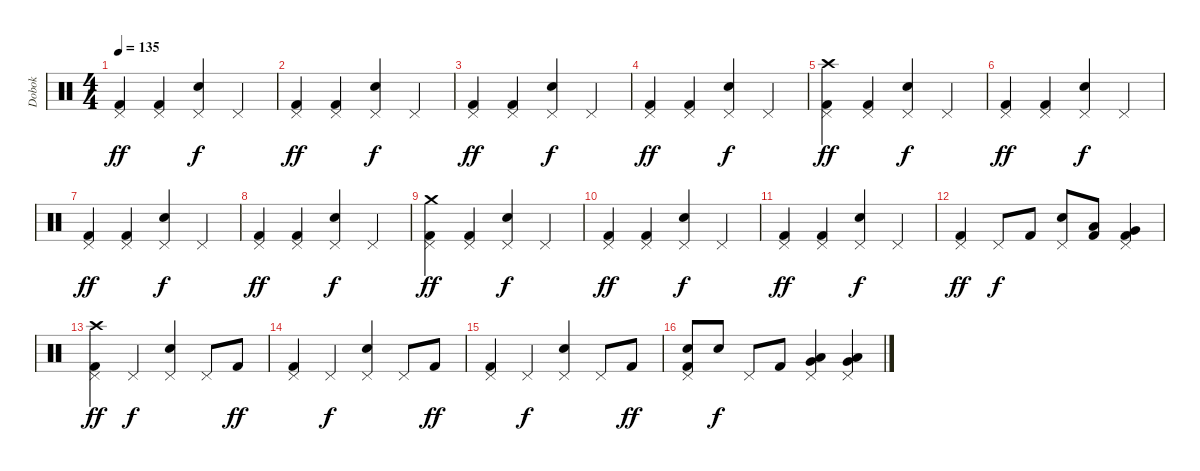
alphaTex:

\track ("Dobok" "Dobok") {instrument percussion}
\staff {score}
\articulation defaults
\ts (4 4)
\tempo 135
\clef neutral
\ks c
("Pedal Hi-Hat (hit)" "Kick (hit) 2").4{dy ff} ("Pedal Hi-Hat (hit)" "Kick (hit) 2").4 ("Pedal Hi-Hat (hit)" "Electric Snare (hit)").4{dy f} "Pedal Hi-Hat (hit)".4 |
("Pedal Hi-Hat (hit)" "Kick (hit) 2").4{dy ff} ("Pedal Hi-Hat (hit)" "Kick (hit) 2").4 ("Pedal Hi-Hat (hit)" "Electric Snare (hit)").4{dy f} "Pedal Hi-Hat (hit)".4 |
("Pedal Hi-Hat (hit)" "Kick (hit) 2").4{dy ff} ("Pedal Hi-Hat (hit)" "Kick (hit) 2").4 ("Pedal Hi-Hat (hit)" "Electric Snare (hit)").4{dy f} "Pedal Hi-Hat (hit)".4 |
("Pedal Hi-Hat (hit)" "Kick (hit) 2").4{dy ff} ("Pedal Hi-Hat (hit)" "Kick (hit) 2").4 ("Pedal Hi-Hat (hit)" "Electric Snare (hit)").4{dy f} "Pedal Hi-Hat (hit)".4 |
("Pedal Hi-Hat (hit)" "Crash high (hit)" "Kick (hit) 2").4{dy ff} ("Pedal Hi-Hat (hit)" "Kick (hit) 2").4 ("Pedal Hi-Hat (hit)" "Electric Snare (hit)").4{dy f} "Pedal Hi-Hat (hit)".4 |
("Pedal Hi-Hat (hit)" "Kick (hit) 2").4{dy ff} ("Pedal Hi-Hat (hit)" "Kick (hit) 2").4 ("Pedal Hi-Hat (hit)" "Electric Snare (hit)").4{dy f} "Pedal Hi-Hat (hit)".4 |
("Pedal Hi-Hat (hit)" "Kick (hit) 2").4{dy ff} ("Pedal Hi-Hat (hit)" "Kick (hit) 2").4 ("Pedal Hi-Hat (hit)" "Electric Snare (hit)").4{dy f} "Pedal Hi-Hat (hit)".4 |
("Pedal Hi-Hat (hit)" "Kick (hit) 2").4{dy ff} ("Pedal Hi-Hat (hit)" "Kick (hit) 2").4 ("Pedal Hi-Hat (hit)" "Electric Snare (hit)").4{dy f} "Pedal Hi-Hat (hit)".4 |
("Pedal Hi-Hat (hit)" "Crash medium (hit)" "Kick (hit) 2").4{dy ff} ("Pedal Hi-Hat (hit)" "Kick (hit) 2").4 ("Pedal Hi-Hat (hit)" "Electric Snare (hit)").4{dy f} "Pedal Hi-Hat (hit)".4 |
("Pedal Hi-Hat (hit)" "Kick (hit) 2").4{dy ff} ("Pedal Hi-Hat (hit)" "Kick (hit) 2").4 ("Pedal Hi-Hat (hit)" "Electric Snare (hit)").4{dy f} "Pedal Hi-Hat (hit)".4 |
("Pedal Hi-Hat (hit)" "Kick (hit) 2").4{dy ff} ("Pedal Hi-Hat (hit)" "Kick (hit) 2").4 ("Pedal Hi-Hat (hit)" "Electric Snare (hit)").4{dy f} "Pedal Hi-Hat (hit)".4 |
("Pedal Hi-Hat (hit)" "Kick (hit) 2").4{dy ff} "Pedal Hi-Hat (hit)".8{dy f} "Kick (hit) 2".8 ("Pedal Hi-Hat (hit)" "Electric Snare (hit)").8 ("Low Tom (hit)" "Kick (hit) 2").8 ("Pedal Hi-Hat (hit)" "Very Low Tom (hit)" "Kick (hit) 2").4 |
("Pedal Hi-Hat (hit)" "Crash high (hit)" "Kick (hit) 2").4{dy ff} "Pedal Hi-Hat (hit)".4{dy f} ("Pedal Hi-Hat (hit)" "Electric Snare (hit)").4 "Pedal Hi-Hat (hit)".8 "Kick (hit) 2".8{dy ff} |
("Pedal Hi-Hat (hit)" "Kick (hit) 2").4 "Pedal Hi-Hat (hit)".4{dy f} ("Pedal Hi-Hat (hit)" "Electric Snare (hit)").4 "Pedal Hi-Hat (hit)".8 "Kick (hit) 2".8{dy ff} |
("Pedal Hi-Hat (hit)" "Kick (hit) 2").4 "Pedal Hi-Hat (hit)".4{dy f} ("Pedal Hi-Hat (hit)" "Electric Snare (hit)").4 "Pedal Hi-Hat (hit)".8 "Kick (hit) 2".8{dy ff} |
("Pedal Hi-Hat (hit)" "Electric Snare (hit)" "Kick (hit) 2").8 "Electric Snare (hit)".8{dy f} "Pedal Hi-Hat (hit)".8 "Kick (hit) 2".8 ("Pedal Hi-Hat (hit)" "Low Tom (hit)" "Very Low Tom (hit)").4 ("Pedal Hi-Hat (hit)" "Very Low Tom (hit)" "Low Floor Tom (hit)").4
